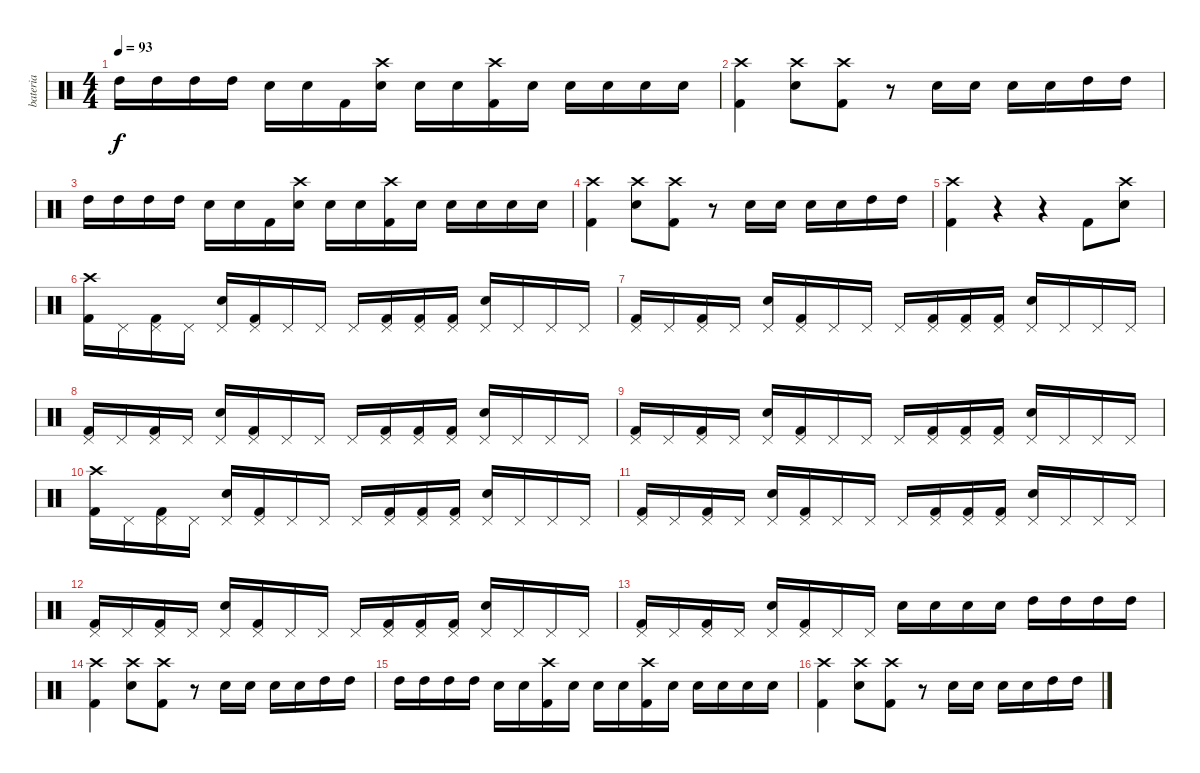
\track ("bateria" "bateria") {instrument percussion}
\staff {score}
\articulation defaults
\ts (4 4)
\tempo 93
\clef neutral
\ks c "High Tom (hit)".16{dy f} "High Tom (hit)".16 "High Tom (hit)".16 "High Tom (hit)".16 "Snare (hit) 2".16 "Snare (hit) 2".16 "Kick (hit) 2".16
("Snare (hit) 2" "Crash high (hit)").16 "Snare (hit) 2".16 "Snare (hit) 2".16 ("Kick (hit) 2" "Crash high (hit)").16 "Snare (hit) 2".16 "Snare (hit) 2".16 "Snare (hit) 2".16 "Snare (hit) 2".16 "Snare (hit) 2".16 |
("Kick (hit) 2" "Crash high (hit)").4 ("Crash high (hit)" "Snare (hit) 2").8 ("Kick (hit) 2" "Crash high (hit)").8 r.8 "Snare (hit) 2".16 "Snare (hit) 2".16 "Snare (hit) 2".16 "Snare (hit) 2".16 "High Tom (hit)".16 "High Tom (hit)".16 |
"High Tom (hit)".16 "High Tom (hit)".16 "High Tom (hit)".16 "High Tom (hit)".16 "Snare (hit) 2".16 "Snare (hit) 2".16 "Kick (hit) 2".16 ("Snare (hit) 2" "Crash high (hit)").16 "Snare (hit) 2".16 "Snare (hit) 2".16 ("Kick (hit) 2" "Crash high (hit)").16 "Snare (hit) 2".16 "Snare (hit) 2".16 "Snare (hit) 2".16 "Snare (hit) 2".16 "Snare (hit) 2".16 |
("Kick (hit) 2" "Crash high (hit)").4 ("Crash high (hit)" "Snare (hit) 2").8 ("Kick (hit) 2" "Crash high (hit)").8 r.8 "Snare (hit) 2".16 "Snare (hit) 2".16 "Snare (hit) 2".16 "Snare (hit) 2".16 "High Tom (hit)".16 "High Tom (hit)".16 |
("Crash high (hit)" "Kick (hit) 2").4 r.4 r.4 "Kick (hit) 2".8 ("Crash high (hit)" "Snare (hit) 2").8 |
("Kick (hit) 2" "Crash high (hit)").16 "Pedal Hi-Hat (hit)".16 ("Kick (hit) 2" "Pedal Hi-Hat (hit)").16 "Pedal Hi-Hat (hit)".16 ("Snare (hit) 2" "Pedal Hi-Hat (hit)").16 ("Kick (hit) 2" "Pedal Hi-Hat (hit)").16 "Pedal Hi-Hat (hit)".16 "Pedal Hi-Hat (hit)".16 "Pedal Hi-Hat (hit)".16 ("Kick (hit) 2" "Pedal Hi-Hat (hit)").16 ("Kick (hit) 2" "Pedal Hi-Hat (hit)").16 ("Kick (hit) 2" "Pedal Hi-Hat (hit)").16 ("Snare (hit) 2" "Pedal Hi-Hat (hit)").16 "Pedal Hi-Hat (hit)".16 "Pedal Hi-Hat (hit)".16 "Pedal Hi-Hat (hit)".16 |
("Kick (hit) 2" "Pedal Hi-Hat (hit)").16 "Pedal Hi-Hat (hit)".16 ("Kick (hit) 2" "Pedal Hi-Hat (hit)").16 "Pedal Hi-Hat (hit)".16 ("Snare (hit) 2" "Pedal Hi-Hat (hit)").16 ("Kick (hit) 2" "Pedal Hi-Hat (hit)").16 "Pedal Hi-Hat (hit)".16 "Pedal Hi-Hat (hit)".16 "Pedal Hi-Hat (hit)".16 ("Kick (hit) 2" "Pedal Hi-Hat (hit)").16 ("Kick (hit) 2" "Pedal Hi-Hat (hit)").16 ("Kick (hit) 2" "Pedal Hi-Hat (hit)").16 ("Snare (hit) 2" "Pedal Hi-Hat (hit)").16 "Pedal Hi-Hat (hit)".16 "Pedal Hi-Hat (hit)".16 "Pedal Hi-Hat (hit)".16 |
("Kick (hit) 2" "Pedal Hi-Hat (hit)").16 "Pedal Hi-Hat (hit)".16 ("Kick (hit) 2" "Pedal Hi-Hat (hit)").16 "Pedal Hi-Hat (hit)".16 ("Snare (hit) 2" "Pedal Hi-Hat (hit)").16 ("Kick (hit) 2" "Pedal Hi-Hat (hit)").16 "Pedal Hi-Hat (hit)".16 "Pedal Hi-Hat (hit)".16 "Pedal Hi-Hat (hit)".16 ("Kick (hit) 2" "Pedal Hi-Hat (hit)").16 ("Kick (hit) 2" "Pedal Hi-Hat (hit)").16 ("Kick (hit) 2" "Pedal Hi-Hat (hit)").16 ("Snare (hit) 2" "Pedal Hi-Hat (hit)").16 "Pedal Hi-Hat (hit)".16 "Pedal Hi-Hat (hit)".16 "Pedal Hi-Hat (hit)".16 |
("Kick (hit) 2" "Pedal Hi-Hat (hit)").16 "Pedal Hi-Hat (hit)".16 ("Kick (hit) 2" "Pedal Hi-Hat (hit)").16 "Pedal Hi-Hat (hit)".16 ("Snare (hit) 2" "Pedal Hi-Hat (hit)").16 ("Kick (hit) 2" "Pedal Hi-Hat (hit)").16 "Pedal Hi-Hat (hit)".16 "Pedal Hi-Hat (hit)".16 "Pedal Hi-Hat (hit)".16 ("Kick (hit) 2" "Pedal Hi-Hat (hit)").16 ("Kick (hit) 2" "Pedal Hi-Hat (hit)").16 ("Kick (hit) 2" "Pedal Hi-Hat (hit)").16 ("Snare (hit) 2" "Pedal Hi-Hat (hit)").16 "Pedal Hi-Hat (hit)".16 "Pedal Hi-Hat (hit)".16 "Pedal Hi-Hat (hit)".16 |
("Kick (hit) 2" "Crash high (hit)").16 "Pedal Hi-Hat (hit)".16 ("Kick (hit) 2" "Pedal Hi-Hat (hit)").16 "Pedal Hi-Hat (hit)".16 ("Snare (hit) 2" "Pedal Hi-Hat (hit)").16 ("Kick (hit) 2" "Pedal Hi-Hat (hit)").16 "Pedal Hi-Hat (hit)".16 "Pedal Hi-Hat (hit)".16 "Pedal Hi-Hat (hit)".16 ("Kick (hit) 2" "Pedal Hi-Hat (hit)").16 ("Kick (hit) 2" "Pedal Hi-Hat (hit)").16 ("Kick (hit) 2" "Pedal Hi-Hat (hit)").16 ("Snare (hit) 2" "Pedal Hi-Hat (hit)").16 "Pedal Hi-Hat (hit)".16 "Pedal Hi-Hat (hit)".16 "Pedal Hi-Hat (hit)".16 |
("Kick (hit) 2" "Pedal Hi-Hat (hit)").16 "Pedal Hi-Hat (hit)".16 ("Kick (hit) 2" "Pedal Hi-Hat (hit)").16 "Pedal Hi-Hat (hit)".16 ("Snare (hit) 2" "Pedal Hi-Hat (hit)").16 ("Kick (hit) 2" "Pedal Hi-Hat (hit)").16 "Pedal Hi-Hat (hit)".16 "Pedal Hi-Hat (hit)".16 "Pedal Hi-Hat (hit)".16 ("Kick (hit) 2" "Pedal Hi-Hat (hit)").16 ("Kick (hit) 2" "Pedal Hi-Hat (hit)").16 ("Kick (hit) 2" "Pedal Hi-Hat (hit)").16 ("Snare (hit) 2" "Pedal Hi-Hat (hit)").16 "Pedal Hi-Hat (hit)".16 "Pedal Hi-Hat (hit)".16 "Pedal Hi-Hat (hit)".16 |
("Kick (hit) 2" "Pedal Hi-Hat (hit)").16 "Pedal Hi-Hat (hit)".16 ("Kick (hit) 2" "Pedal Hi-Hat (hit)").16 "Pedal Hi-Hat (hit)".16 ("Snare (hit) 2" "Pedal Hi-Hat (hit)").16 ("Kick (hit) 2" "Pedal Hi-Hat (hit)").16 "Pedal Hi-Hat (hit)".16 "Pedal Hi-Hat (hit)".16 "Pedal Hi-Hat (hit)".16 ("Kick (hit) 2" "Pedal Hi-Hat (hit)").16 ("Kick (hit) 2" "Pedal Hi-Hat (hit)").16 ("Kick (hit) 2" "Pedal Hi-Hat (hit)").16 ("Snare (hit) 2" "Pedal Hi-Hat (hit)").16 "Pedal Hi-Hat (hit)".16 "Pedal Hi-Hat (hit)".16 "Pedal Hi-Hat (hit)".16 |
("Kick (hit) 2" "Pedal Hi-Hat (hit)").16 "Pedal Hi-Hat (hit)".16 ("Kick (hit) 2" "Pedal Hi-Hat (hit)").16 "Pedal Hi-Hat (hit)".16 ("Snare (hit) 2" "Pedal Hi-Hat (hit)").16 ("Kick (hit) 2" "Pedal Hi-Hat (hit)").16 "Pedal Hi-Hat (hit)".16 "Pedal Hi-Hat (hit)".16 "Snare (hit) 2".16 "Snare (hit) 2".16 "Snare (hit) 2".16 "Snare (hit) 2".16 "High Tom (hit)".16 "High Tom (hit)".16 "High Tom (hit)".16 "High Tom (hit)".16 |
("Kick (hit) 2" "Crash high (hit)").4 ("Crash high (hit)" "Snare (hit) 2").8 ("Kick (hit) 2" "Crash high (hit)").8 r.8 "Snare (hit) 2".16 "Snare (hit) 2".16 "Snare (hit) 2".16 "Snare (hit) 2".16 "High Tom (hit)".16 "High Tom (hit)".16 |
"High Tom (hit)".16 "High Tom (hit)".16 "High Tom (hit)".16 "High Tom (hit)".16 "Snare (hit) 2".16 "Snare (hit) 2".16 ("Kick (hit) 2" "Crash high (hit)").16 "Snare (hit) 2".16 "Snare (hit) 2".16 "Snare (hit) 2".16 ("Kick (hit) 2" "Crash high (hit)").16 "Snare (hit) 2".16 "Snare (hit) 2".16 "Snare (hit) 2".16 "Snare (hit) 2".16 "Snare (hit) 2".16 |
("Kick (hit) 2" "Crash high (hit)").4 ("Crash high (hit)" "Snare (hit) 2").8 ("Kick (hit) 2" "Crash high (hit)").8 r.8 "Snare (hit) 2".16 "Snare (hit) 2".16 "Snare (hit) 2".16 "Snare (hit) 2".16 "High Tom (hit)".16 "High Tom (hit)".16
